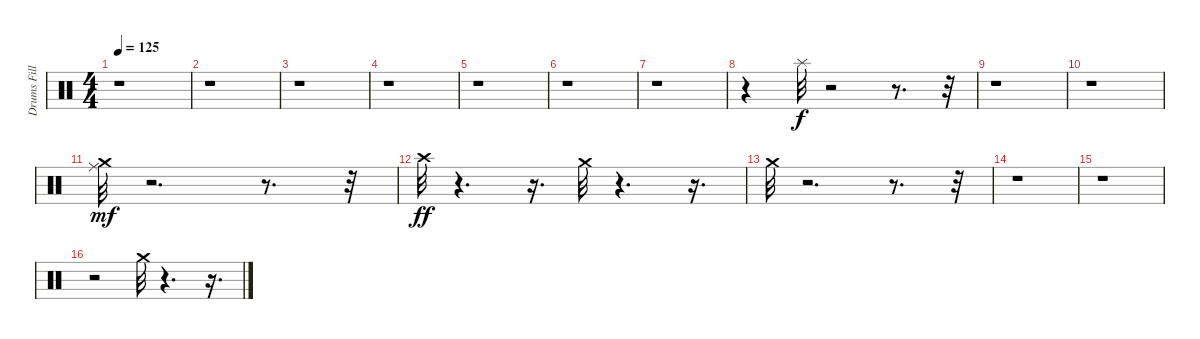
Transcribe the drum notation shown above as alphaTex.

\track ("Drums Fill" "Drums Fill") {instrument percussion}
\staff {score}
\articulation defaults
\ts (4 4)
\tempo 125
\clef neutral
\ks c
r.1{dy ff} |
r.1 |
r.1 |
r.1 |
r.1 |
r.1 |
r.1 |
r.4 "Splash (hit)".32{dy f} r.2 r.8{d} r.32 |
r.1 |
r.1 |
("Ride (middle)" "Crash medium (hit)").32{dy mf} r.2{d} r.8{d} r.32 |
"Crash high (hit)".32{dy ff} r.4{d} r.16{d} "Crash medium (hit)".32 r.4{d} r.16{d} |
"Crash medium (hit)".32 r.2{d} r.8{d} r.32 |
r.1 |
r.1 |
r.2 "Crash medium (hit)".32 r.4{d} r.16{d}
